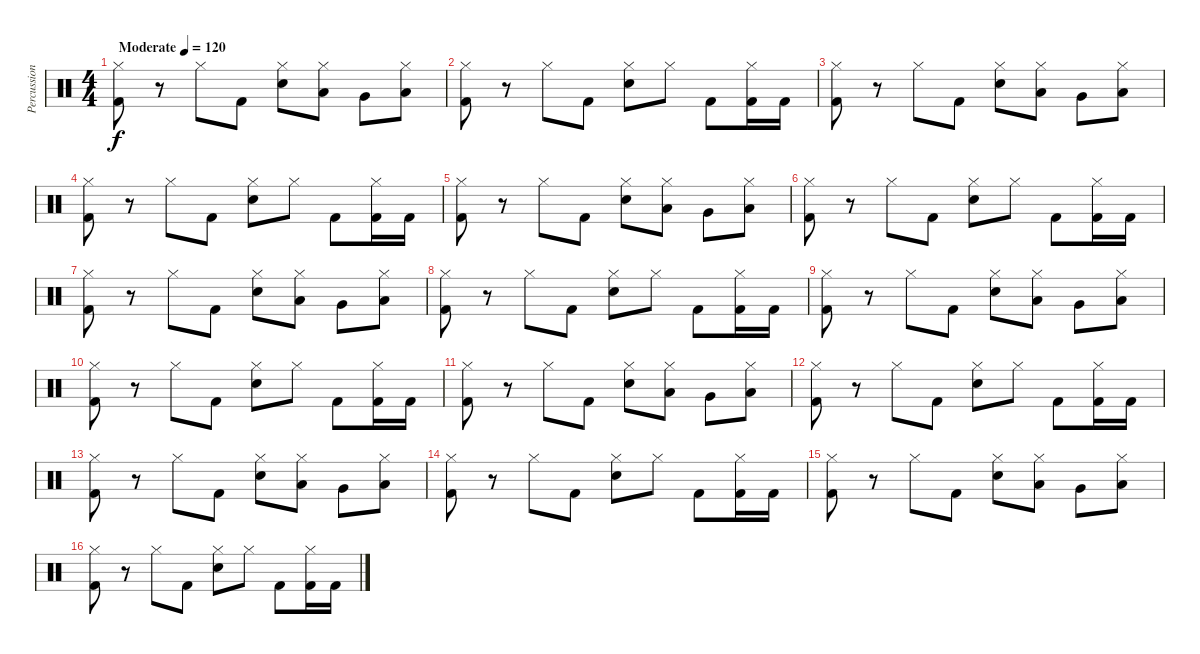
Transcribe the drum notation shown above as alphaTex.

\track ("Percussions" "Percussion") {instrument percussion}
\staff {score}
\articulation defaults
\ts (4 4)
\tempo (120 "Moderate")
\clef neutral
\ks c
("Hi-Hat (closed)" "Kick (hit) 2").8{dy f} r.8 "Hi-Hat (closed)".8 "Kick (hit) 2".8 ("Hi-Hat (closed)" "Snare (hit) 2").8 ("Hi-Hat (closed)" "Low Tom (hit)").8 "Very Low Tom (hit)".8 ("Hi-Hat (closed)" "Low Floor Tom (hit)").8 |
("Hi-Hat (closed)" "Kick (hit) 2").8 r.8 "Hi-Hat (closed)".8 "Kick (hit) 2".8 ("Hi-Hat (closed)" "Snare (hit) 2").8 "Hi-Hat (closed)".8 "Kick (hit) 2".8 ("Hi-Hat (closed)" "Kick (hit) 2").16 "Kick (hit) 2".16 |
("Hi-Hat (closed)" "Kick (hit) 2").8 r.8 "Hi-Hat (closed)".8 "Kick (hit) 2".8 ("Hi-Hat (closed)" "Snare (hit) 2").8 ("Hi-Hat (closed)" "Low Tom (hit)").8 "Very Low Tom (hit)".8 ("Hi-Hat (closed)" "Low Floor Tom (hit)").8 |
("Hi-Hat (closed)" "Kick (hit) 2").8 r.8 "Hi-Hat (closed)".8 "Kick (hit) 2".8 ("Hi-Hat (closed)" "Snare (hit) 2").8 "Hi-Hat (closed)".8 "Kick (hit) 2".8 ("Hi-Hat (closed)" "Kick (hit) 2").16 "Kick (hit) 2".16 |
("Hi-Hat (closed)" "Kick (hit) 2").8 r.8 "Hi-Hat (closed)".8 "Kick (hit) 2".8 ("Hi-Hat (closed)" "Snare (hit) 2").8 ("Hi-Hat (closed)" "Low Tom (hit)").8 "Very Low Tom (hit)".8 ("Hi-Hat (closed)" "Low Floor Tom (hit)").8 |
("Hi-Hat (closed)" "Kick (hit) 2").8 r.8 "Hi-Hat (closed)".8 "Kick (hit) 2".8 ("Hi-Hat (closed)" "Snare (hit) 2").8 "Hi-Hat (closed)".8 "Kick (hit) 2".8 ("Hi-Hat (closed)" "Kick (hit) 2").16 "Kick (hit) 2".16 |
("Hi-Hat (closed)" "Kick (hit) 2").8 r.8 "Hi-Hat (closed)".8 "Kick (hit) 2".8 ("Hi-Hat (closed)" "Snare (hit) 2").8 ("Hi-Hat (closed)" "Low Tom (hit)").8 "Very Low Tom (hit)".8 ("Hi-Hat (closed)" "Low Floor Tom (hit)").8 |
("Hi-Hat (closed)" "Kick (hit) 2").8 r.8 "Hi-Hat (closed)".8 "Kick (hit) 2".8 ("Hi-Hat (closed)" "Snare (hit) 2").8 "Hi-Hat (closed)".8 "Kick (hit) 2".8 ("Hi-Hat (closed)" "Kick (hit) 2").16 "Kick (hit) 2".16 |
("Hi-Hat (closed)" "Kick (hit) 2").8 r.8 "Hi-Hat (closed)".8 "Kick (hit) 2".8 ("Hi-Hat (closed)" "Snare (hit) 2").8 ("Hi-Hat (closed)" "Low Tom (hit)").8 "Very Low Tom (hit)".8 ("Hi-Hat (closed)" "Low Floor Tom (hit)").8 |
("Hi-Hat (closed)" "Kick (hit) 2").8 r.8 "Hi-Hat (closed)".8 "Kick (hit) 2".8 ("Hi-Hat (closed)" "Snare (hit) 2").8 "Hi-Hat (closed)".8 "Kick (hit) 2".8 ("Hi-Hat (closed)" "Kick (hit) 2").16 "Kick (hit) 2".16 |
("Hi-Hat (closed)" "Kick (hit) 2").8 r.8 "Hi-Hat (closed)".8 "Kick (hit) 2".8 ("Hi-Hat (closed)" "Snare (hit) 2").8 ("Hi-Hat (closed)" "Low Tom (hit)").8 "Very Low Tom (hit)".8 ("Hi-Hat (closed)" "Low Floor Tom (hit)").8 |
("Hi-Hat (closed)" "Kick (hit) 2").8 r.8 "Hi-Hat (closed)".8 "Kick (hit) 2".8 ("Hi-Hat (closed)" "Snare (hit) 2").8 "Hi-Hat (closed)".8 "Kick (hit) 2".8 ("Hi-Hat (closed)" "Kick (hit) 2").16 "Kick (hit) 2".16 |
("Hi-Hat (closed)" "Kick (hit) 2").8 r.8 "Hi-Hat (closed)".8 "Kick (hit) 2".8 ("Hi-Hat (closed)" "Snare (hit) 2").8 ("Hi-Hat (closed)" "Low Tom (hit)").8 "Very Low Tom (hit)".8 ("Hi-Hat (closed)" "Low Floor Tom (hit)").8 |
("Hi-Hat (closed)" "Kick (hit) 2").8 r.8 "Hi-Hat (closed)".8 "Kick (hit) 2".8 ("Hi-Hat (closed)" "Snare (hit) 2").8 "Hi-Hat (closed)".8 "Kick (hit) 2".8 ("Hi-Hat (closed)" "Kick (hit) 2").16 "Kick (hit) 2".16 |
("Hi-Hat (closed)" "Kick (hit) 2").8 r.8 "Hi-Hat (closed)".8 "Kick (hit) 2".8 ("Hi-Hat (closed)" "Snare (hit) 2").8 ("Hi-Hat (closed)" "Low Tom (hit)").8 "Very Low Tom (hit)".8 ("Hi-Hat (closed)" "Low Floor Tom (hit)").8 |
("Hi-Hat (closed)" "Kick (hit) 2").8 r.8 "Hi-Hat (closed)".8 "Kick (hit) 2".8 ("Hi-Hat (closed)" "Snare (hit) 2").8 "Hi-Hat (closed)".8 "Kick (hit) 2".8 ("Hi-Hat (closed)" "Kick (hit) 2").16 "Kick (hit) 2".16
